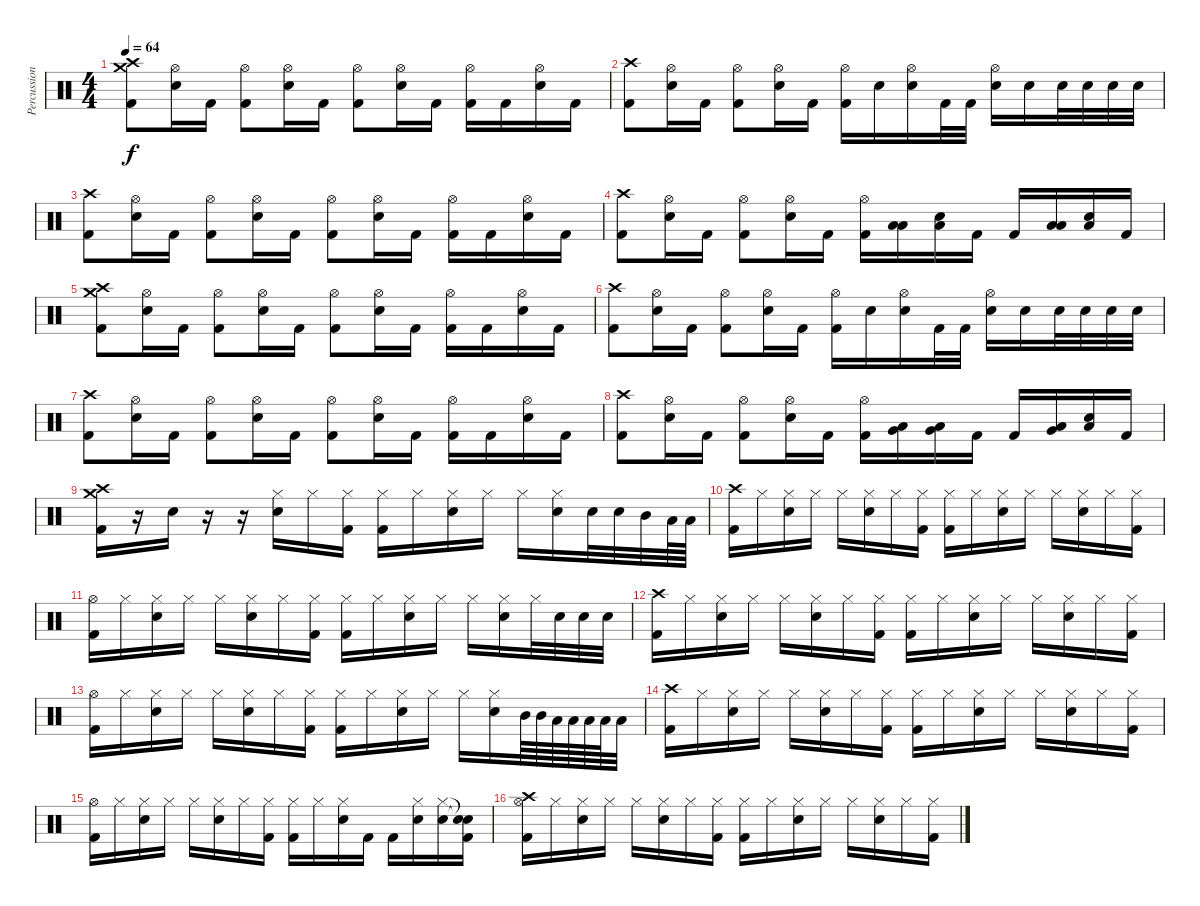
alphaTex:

\track ("Percussion" "Percussion") {instrument percussion}
\staff {score}
\articulation defaults
\ts (4 4)
\tempo 64
\clef neutral
\ks c
("Crash high (hit)" "Crash medium (hit)" "Kick (hit) 2").8{dy f} ("Hi-Hat (open)" "Electric Snare (hit)").16 "Kick (hit) 2".16 ("Hi-Hat (open)" "Kick (hit) 2").8 ("Hi-Hat (open)" "Electric Snare (hit)").16 "Kick (hit) 2".16 ("Hi-Hat (open)" "Kick (hit) 2").8 ("Hi-Hat (open)" "Electric Snare (hit)").16 "Kick (hit) 2".16 ("Hi-Hat (open)" "Kick (hit) 2").16 "Kick (hit) 2".16 ("Hi-Hat (open)" "Electric Snare (hit)").16 "Kick (hit) 2".16 |
("Crash high (hit)" "Kick (hit) 2").8 ("Hi-Hat (open)" "Electric Snare (hit)").16 "Kick (hit) 2".16 ("Hi-Hat (open)" "Kick (hit) 2").8 ("Hi-Hat (open)" "Electric Snare (hit)").16 "Kick (hit) 2".16 ("Hi-Hat (open)" "Kick (hit) 2").16 "Electric Snare (hit)".16 ("Hi-Hat (open)" "Electric Snare (hit)").16 "Kick (hit) 2".32 "Kick (hit) 2".32 ("Hi-Hat (open)" "Electric Snare (hit)").16 "Electric Snare (hit)".16 "Electric Snare (hit)".32 "Electric Snare (hit)".32 "Electric Snare (hit)".32 "Electric Snare (hit)".32 |
("Crash high (hit)" "Kick (hit) 2").8 ("Hi-Hat (open)" "Electric Snare (hit)").16 "Kick (hit) 2".16 ("Hi-Hat (open)" "Kick (hit) 2").8 ("Hi-Hat (open)" "Electric Snare (hit)").16 "Kick (hit) 2".16 ("Hi-Hat (open)" "Kick (hit) 2").8 ("Hi-Hat (open)" "Electric Snare (hit)").16 "Kick (hit) 2".16 ("Hi-Hat (open)" "Kick (hit) 2").16 "Kick (hit) 2".16 ("Hi-Hat (open)" "Electric Snare (hit)").16 "Kick (hit) 2".16 |
("Crash high (hit)" "Kick (hit) 2").8 ("Hi-Hat (open)" "Electric Snare (hit)").16 "Kick (hit) 2".16 ("Hi-Hat (open)" "Kick (hit) 2").8 ("Hi-Hat (open)" "Electric Snare (hit)").16 "Kick (hit) 2".16 ("Hi-Hat (open)" "Kick (hit) 2").16 ("Low Floor Tom (hit)" "Low Tom (hit)").16 ("Low Floor Tom (hit)" "Electric Snare (hit)").16 "Kick (hit) 2".16 "Kick (hit) 2".16 ("Low Tom (hit)" "Low Floor Tom (hit)").16 ("Low Floor Tom (hit)" "Electric Snare (hit)").16 "Kick (hit) 2".16 |
("Crash high (hit)" "Crash medium (hit)" "Kick (hit) 2").8 ("Hi-Hat (open)" "Electric Snare (hit)").16 "Kick (hit) 2".16 ("Hi-Hat (open)" "Kick (hit) 2").8 ("Hi-Hat (open)" "Electric Snare (hit)").16 "Kick (hit) 2".16 ("Hi-Hat (open)" "Kick (hit) 2").8 ("Hi-Hat (open)" "Electric Snare (hit)").16 "Kick (hit) 2".16 ("Hi-Hat (open)" "Kick (hit) 2").16 "Kick (hit) 2".16 ("Hi-Hat (open)" "Electric Snare (hit)").16 "Kick (hit) 2".16 |
("Crash high (hit)" "Kick (hit) 2").8 ("Hi-Hat (open)" "Electric Snare (hit)").16 "Kick (hit) 2".16 ("Hi-Hat (open)" "Kick (hit) 2").8 ("Hi-Hat (open)" "Electric Snare (hit)").16 "Kick (hit) 2".16 ("Hi-Hat (open)" "Kick (hit) 2").16 "Electric Snare (hit)".16 ("Hi-Hat (open)" "Electric Snare (hit)").16 "Kick (hit) 2".32 "Kick (hit) 2".32 ("Hi-Hat (open)" "Electric Snare (hit)").16 "Electric Snare (hit)".16 "Electric Snare (hit)".32 "Electric Snare (hit)".32 "Electric Snare (hit)".32 "Electric Snare (hit)".32 |
("Crash high (hit)" "Kick (hit) 2").8 ("Hi-Hat (open)" "Electric Snare (hit)").16 "Kick (hit) 2".16 ("Hi-Hat (open)" "Kick (hit) 2").8 ("Hi-Hat (open)" "Electric Snare (hit)").16 "Kick (hit) 2".16 ("Hi-Hat (open)" "Kick (hit) 2").8 ("Hi-Hat (open)" "Electric Snare (hit)").16 "Kick (hit) 2".16 ("Hi-Hat (open)" "Kick (hit) 2").16 "Kick (hit) 2".16 ("Hi-Hat (open)" "Electric Snare (hit)").16 "Kick (hit) 2".16 |
("Crash high (hit)" "Kick (hit) 2").8 ("Hi-Hat (open)" "Electric Snare (hit)").16 "Kick (hit) 2".16 ("Hi-Hat (open)" "Kick (hit) 2").8 ("Hi-Hat (open)" "Electric Snare (hit)").16 "Kick (hit) 2".16 ("Hi-Hat (open)" "Kick (hit) 2").16 ("Very Low Tom (hit)" "Low Floor Tom (hit)").16 ("Very Low Tom (hit)" "Low Floor Tom (hit)").16 "Kick (hit) 2".16 "Kick (hit) 2".16 ("Very Low Tom (hit)" "Low Floor Tom (hit)").16 ("Low Floor Tom (hit)" "Electric Snare (hit)").16 "Kick (hit) 2".16 |
("Crash high (hit)" "Crash medium (hit)" "Kick (hit) 2").16 r.16 "Electric Snare (hit)".16 r.16 r.16 ("Hi-Hat (closed)" "Electric Snare (hit)").16 "Hi-Hat (closed)".16 ("Hi-Hat (closed)" "Kick (hit) 2").16 ("Hi-Hat (closed)" "Kick (hit) 2").16 "Hi-Hat (closed)".16 ("Hi-Hat (closed)" "Electric Snare (hit)").16 "Hi-Hat (closed)".16 "Hi-Hat (closed)".16 ("Hi-Hat (closed)" "Electric Snare (hit)").16 "Electric Snare (hit)".32 "Electric Snare (hit)".32 "Mid Tom (hit)".32 "Low Tom (hit)".64 "Low Floor Tom (hit)".64 |
("Crash high (hit)" "Kick (hit) 2").16 "Hi-Hat (closed)".16 ("Hi-Hat (closed)" "Electric Snare (hit)").16 "Hi-Hat (closed)".16 "Hi-Hat (closed)".16 ("Hi-Hat (closed)" "Electric Snare (hit)").16 "Hi-Hat (closed)".16 ("Hi-Hat (closed)" "Kick (hit) 2").16 ("Hi-Hat (closed)" "Kick (hit) 2").16 "Hi-Hat (closed)".16 ("Hi-Hat (closed)" "Electric Snare (hit)").16 "Hi-Hat (closed)".16 "Hi-Hat (closed)".16 ("Hi-Hat (closed)" "Electric Snare (hit)").16 "Hi-Hat (closed)".16 ("Hi-Hat (closed)" "Kick (hit) 2").16 |
("Hi-Hat (open)" "Kick (hit) 2").16 "Hi-Hat (closed)".16 ("Hi-Hat (closed)" "Electric Snare (hit)").16 "Hi-Hat (closed)".16 "Hi-Hat (closed)".16 ("Hi-Hat (closed)" "Electric Snare (hit)").16 "Hi-Hat (closed)".16 ("Hi-Hat (closed)" "Kick (hit) 2").16 ("Hi-Hat (closed)" "Kick (hit) 2").16 "Hi-Hat (closed)".16 ("Hi-Hat (closed)" "Electric Snare (hit)").16 "Hi-Hat (closed)".16 "Hi-Hat (closed)".16 ("Hi-Hat (closed)" "Electric Snare (hit)").16 "Hi-Hat (closed)".32 "Electric Snare (hit)".32 "Electric Snare (hit)".32 "Electric Snare (hit)".32 |
("Crash high (hit)" "Kick (hit) 2").16 "Hi-Hat (closed)".16 ("Hi-Hat (closed)" "Electric Snare (hit)").16 "Hi-Hat (closed)".16 "Hi-Hat (closed)".16 ("Hi-Hat (closed)" "Electric Snare (hit)").16 "Hi-Hat (closed)".16 ("Hi-Hat (closed)" "Kick (hit) 2").16 ("Hi-Hat (closed)" "Kick (hit) 2").16 "Hi-Hat (closed)".16 ("Hi-Hat (closed)" "Electric Snare (hit)").16 "Hi-Hat (closed)".16 "Hi-Hat (closed)".16 ("Hi-Hat (closed)" "Electric Snare (hit)").16 "Hi-Hat (closed)".16 ("Hi-Hat (closed)" "Kick (hit) 2").16 |
("Hi-Hat (open)" "Kick (hit) 2").16 "Hi-Hat (closed)".16 ("Hi-Hat (closed)" "Electric Snare (hit)").16 "Hi-Hat (closed)".16 "Hi-Hat (closed)".16 ("Hi-Hat (closed)" "Electric Snare (hit)").16 "Hi-Hat (closed)".16 ("Hi-Hat (closed)" "Kick (hit) 2").16 ("Hi-Hat (closed)" "Kick (hit) 2").16 "Hi-Hat (closed)".16 ("Hi-Hat (closed)" "Electric Snare (hit)").16 "Hi-Hat (closed)".16 "Hi-Hat (closed)".16 ("Hi-Hat (closed)" "Electric Snare (hit)").16 "Mid Tom (hit)".64 "Mid Tom (hit)".64 "Low Tom (hit)".64 "Low Tom (hit)".64 "Low Floor Tom (hit)".64 "Low Floor Tom (hit)".64 "Low Floor Tom (hit)".32 |
("Crash high (hit)" "Kick (hit) 2").16 "Hi-Hat (closed)".16 ("Hi-Hat (closed)" "Electric Snare (hit)").16 "Hi-Hat (closed)".16 "Hi-Hat (closed)".16 ("Hi-Hat (closed)" "Electric Snare (hit)").16 "Hi-Hat (closed)".16 ("Hi-Hat (closed)" "Kick (hit) 2").16 ("Hi-Hat (closed)" "Kick (hit) 2").16 "Hi-Hat (closed)".16 ("Hi-Hat (closed)" "Electric Snare (hit)").16 "Hi-Hat (closed)".16 "Hi-Hat (closed)".16 ("Hi-Hat (closed)" "Electric Snare (hit)").16 "Hi-Hat (closed)".16 ("Hi-Hat (closed)" "Kick (hit) 2").16 |
("Hi-Hat (open)" "Kick (hit) 2").16 "Hi-Hat (closed)".16 ("Hi-Hat (closed)" "Electric Snare (hit)").16 "Hi-Hat (closed)".16 "Hi-Hat (closed)".16 ("Hi-Hat (closed)" "Electric Snare (hit)").16 "Hi-Hat (closed)".16 ("Hi-Hat (closed)" "Kick (hit) 2").16 ("Hi-Hat (closed)" "Kick (hit) 2").16 "Hi-Hat (closed)".16 ("Hi-Hat (closed)" "Electric Snare (hit)").16 "Kick (hit) 2".16 "Kick (hit) 2".16 ("Hi-Hat (closed)" "Electric Snare (hit)").16 ("Hi-Hat (closed)" "Electric Snare (hit)").16 ("Snare (hit)"{t} "Snare (hit)"{t} "Kick (hit) 2").16 |
("Crash high (hit)" "Hi-Hat (open)" "Kick (hit) 2").16 "Hi-Hat (closed)".16 ("Hi-Hat (closed)" "Electric Snare (hit)").16 "Hi-Hat (closed)".16 "Hi-Hat (closed)".16 ("Hi-Hat (closed)" "Electric Snare (hit)").16 "Hi-Hat (closed)".16 ("Hi-Hat (closed)" "Kick (hit) 2").16 ("Hi-Hat (closed)" "Kick (hit) 2").16 "Hi-Hat (closed)".16 ("Hi-Hat (closed)" "Electric Snare (hit)").16 "Hi-Hat (closed)".16 "Hi-Hat (closed)".16 ("Hi-Hat (closed)" "Electric Snare (hit)").16 "Hi-Hat (closed)".16 ("Hi-Hat (closed)" "Kick (hit) 2").16
